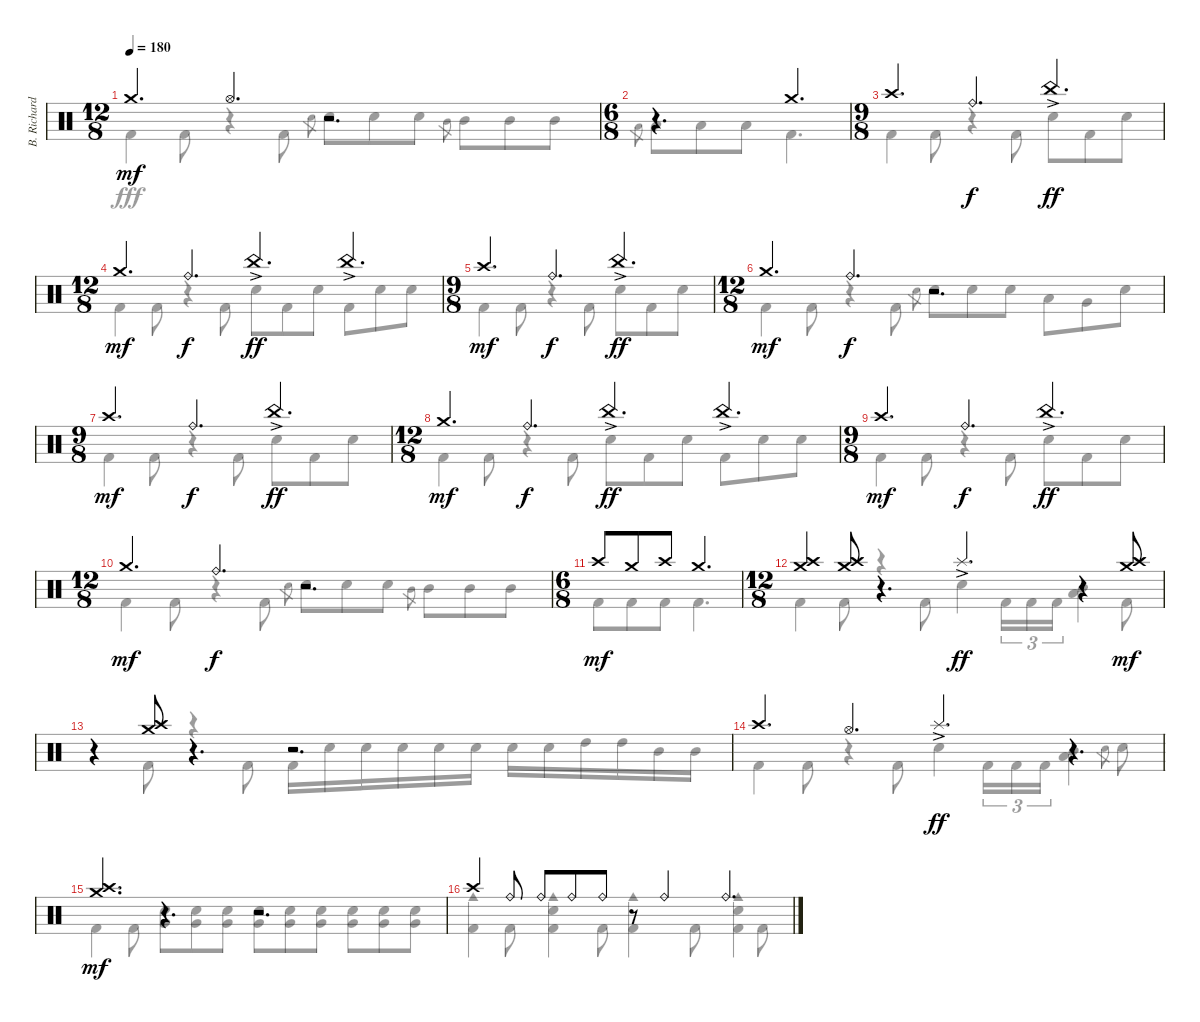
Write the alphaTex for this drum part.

\track ("B. Richardson Drums" "B. Richard") {instrument percussion}
\staff {score}
\articulation defaults
\voice
\ts (12 8)
\tempo 180
\clef neutral
\ks c "Crash medium (hit)".4{d dy mf} "Hi-Hat (open)".4{d}
r.2{d} |
\ts (6 8)
r.4{d} "Crash medium (hit)".4{d} |
\ts (9 8)
"Crash high (hit)".4{d} "Ride (bell)".4{d dy f} "China (hit)"{ac}.4{d dy ff} |
\ts (12 8)
"Crash medium (hit)".4{d dy mf} "Ride (bell)".4{d dy f} "China (hit)"{ac}.4{d dy ff} "China (hit)"{ac}.4{d} |
\ts (9 8)
"Crash high (hit)".4{d dy mf} "Ride (bell)".4{d dy f} "China (hit)"{ac}.4{d dy ff} |
\ts (12 8)
"Crash medium (hit)".4{d dy mf} "Ride (bell)".4{d dy f} r.2{d} |
\ts (9 8)
"Crash high (hit)".4{d dy mf} "Ride (bell)".4{d dy f} "China (hit)"{ac}.4{d dy ff} |
\ts (12 8)
"Crash medium (hit)".4{d dy mf} "Ride (bell)".4{d dy f} "China (hit)"{ac}.4{d dy ff} "China (hit)"{ac}.4{d} |
\ts (9 8)
"Crash high (hit)".4{d dy mf} "Ride (bell)".4{d dy f} "China (hit)"{ac}.4{d dy ff} |
\ts (12 8)
"Crash medium (hit)".4{d dy mf} "Ride (bell)".4{d dy f} r.2{d} |
\ts (6 8)
"Crash high (hit)".8{dy mf} "Crash medium (hit)".8 "Crash high (hit)".8 "Crash medium (hit)".4{d} |
\ts (12 8)
("Crash high (hit)" "Crash medium (hit)").4 ("Crash high (hit)" "Crash medium (hit)").8 r.4{d} "Splash (hit)"{ac}.4{d dy ff} r.4 ("Crash high (hit)" "Crash medium (hit)").8{dy mf} |
r.4 ("Crash high (hit)" "Crash medium (hit)").8 r.4{d} r.2{d} |
"Crash high (hit)".4{d} "Hi-Hat (open)".4{d} "Splash (hit)"{ac}.4{d dy ff} r.4{d} |
("Crash high (hit)" "Crash medium (hit)").4{d dy mf} r.4{d} r.2{d} |
"Crash high (hit)".4 "Ride (bell)".8 "Ride (bell)".8 "Ride (bell)".8 "Ride (bell)".8 r.8 "Ride (bell)".4 "Ride (bell)".4{d}
\voice
\clef neutral
\ottava regular
\simile none
\ks c "Kick (hit) 2".4{dy fff} "Kick (hit) 2".8
r.4 "Kick (hit) 2".8 "Electric Snare (hit)".8{gr} "Electric Snare (hit)".8 "Electric Snare (hit)".8 "Electric Snare (hit)".8 "Mid Tom (hit)".8{gr} "Mid Tom (hit)".8 "Mid Tom (hit)".8 "Mid Tom (hit)".8 |
"Low Tom (hit)".8{gr} "Low Tom (hit)".8 "Low Tom (hit)".8 "Low Tom (hit)".8 "Kick (hit) 2".4{d} |
"Kick (hit) 2".4 "Kick (hit) 2".8 r.4 "Kick (hit) 2".8 "Electric Snare (hit)".8 "Kick (hit) 2".8 "Electric Snare (hit)".8 |
"Kick (hit) 2".4 "Kick (hit) 2".8 r.4 "Kick (hit) 2".8 "Electric Snare (hit)".8 "Kick (hit) 2".8 "Electric Snare (hit)".8 "Kick (hit) 2".8 "Electric Snare (hit)".8 "Electric Snare (hit)".8 |
"Kick (hit) 2".4 "Kick (hit) 2".8 r.4 "Kick (hit) 2".8 "Electric Snare (hit)".8 "Kick (hit) 2".8 "Electric Snare (hit)".8 |
"Kick (hit) 2".4 "Kick (hit) 2".8 r.4 "Kick (hit) 2".8 "Electric Snare (hit)".8{gr} "Electric Snare (hit)".8 "Electric Snare (hit)".8 "Electric Snare (hit)".8 "Low Tom (hit)".8 "Very Low Tom (hit)".8 "Electric Snare (hit)".8 |
"Kick (hit) 2".4 "Kick (hit) 2".8 r.4 "Kick (hit) 2".8 "Electric Snare (hit)".8 "Kick (hit) 2".8 "Electric Snare (hit)".8 |
"Kick (hit) 2".4 "Kick (hit) 2".8 r.4 "Kick (hit) 2".8 "Electric Snare (hit)".8 "Kick (hit) 2".8 "Electric Snare (hit)".8 "Kick (hit) 2".8 "Electric Snare (hit)".8 "Electric Snare (hit)".8 |
"Kick (hit) 2".4 "Kick (hit) 2".8 r.4 "Kick (hit) 2".8 "Electric Snare (hit)".8 "Kick (hit) 2".8 "Electric Snare (hit)".8 |
"Kick (hit) 2".4 "Kick (hit) 2".8 r.4 "Kick (hit) 2".8 "Electric Snare (hit)".8{gr} "Electric Snare (hit)".8 "Electric Snare (hit)".8 "Electric Snare (hit)".8 "Mid Tom (hit)".8{gr} "Mid Tom (hit)".8 "Mid Tom (hit)".8 "Mid Tom (hit)".8 |
"Kick (hit) 2".8 "Kick (hit) 2".8 "Kick (hit) 2".8 "Kick (hit) 2".4{d} |
"Kick (hit) 2".4 "Kick (hit) 2".8 r.4 "Kick (hit) 2".8 "Electric Snare (hit)".4 "Kick (hit) 2".16{tu (3 2)} "Kick (hit) 2".16{tu (3 2)} "Kick (hit) 2".16{tu (3 2)} ("Mid Tom (hit)" "Low Tom (hit)").4 "Kick (hit) 2".8 |
r.4 "Kick (hit) 2".8 r.4 "Kick (hit) 2".8 "Kick (hit) 2".16 "Electric Snare (hit)".16 "Electric Snare (hit)".16 "Electric Snare (hit)".16 "Electric Snare (hit)".16 "Electric Snare (hit)".16 "Electric Snare (hit)".16 "Electric Snare (hit)".16 "High Tom (hit)".16 "High Tom (hit)".16 "Mid Tom (hit)".16 "Mid Tom (hit)".16 |
"Kick (hit) 2".4 "Kick (hit) 2".8 r.4 "Kick (hit) 2".8 "Electric Snare (hit)".4 "Kick (hit) 2".16{tu (3 2)} "Kick (hit) 2".16{tu (3 2)} "Kick (hit) 2".16{tu (3 2)} ("Mid Tom (hit)" "Low Tom (hit)").4 "Electric Snare (hit)".8{gr} "Electric Snare (hit)".8 |
"Kick (hit) 2".4 "Kick (hit) 2".8 ("Electric Snare (hit)" "Very Low Tom (hit)").8 ("Electric Snare (hit)" "Very Low Tom (hit)").8 ("Electric Snare (hit)" "Very Low Tom (hit)").8 ("Electric Snare (hit)" "Very Low Tom (hit)").8 ("Electric Snare (hit)" "Very Low Tom (hit)").8 ("Electric Snare (hit)" "Very Low Tom (hit)").8 ("Electric Snare (hit)" "Very Low Tom (hit)").8 ("Electric Snare (hit)" "Very Low Tom (hit)").8 ("Electric Snare (hit)" "Very Low Tom (hit)").8 |
("Cowbell medium (hit)" "Kick (hit) 2").4 "Kick (hit) 2".8 ("Cowbell medium (hit)" "Electric Snare (hit)" "Kick (hit) 2").4 "Kick (hit) 2".8 ("Cowbell medium (hit)" "Kick (hit) 2").4 "Kick (hit) 2".8 ("Cowbell medium (hit)" "Electric Snare (hit)" "Kick (hit) 2").4 "Kick (hit) 2".8
